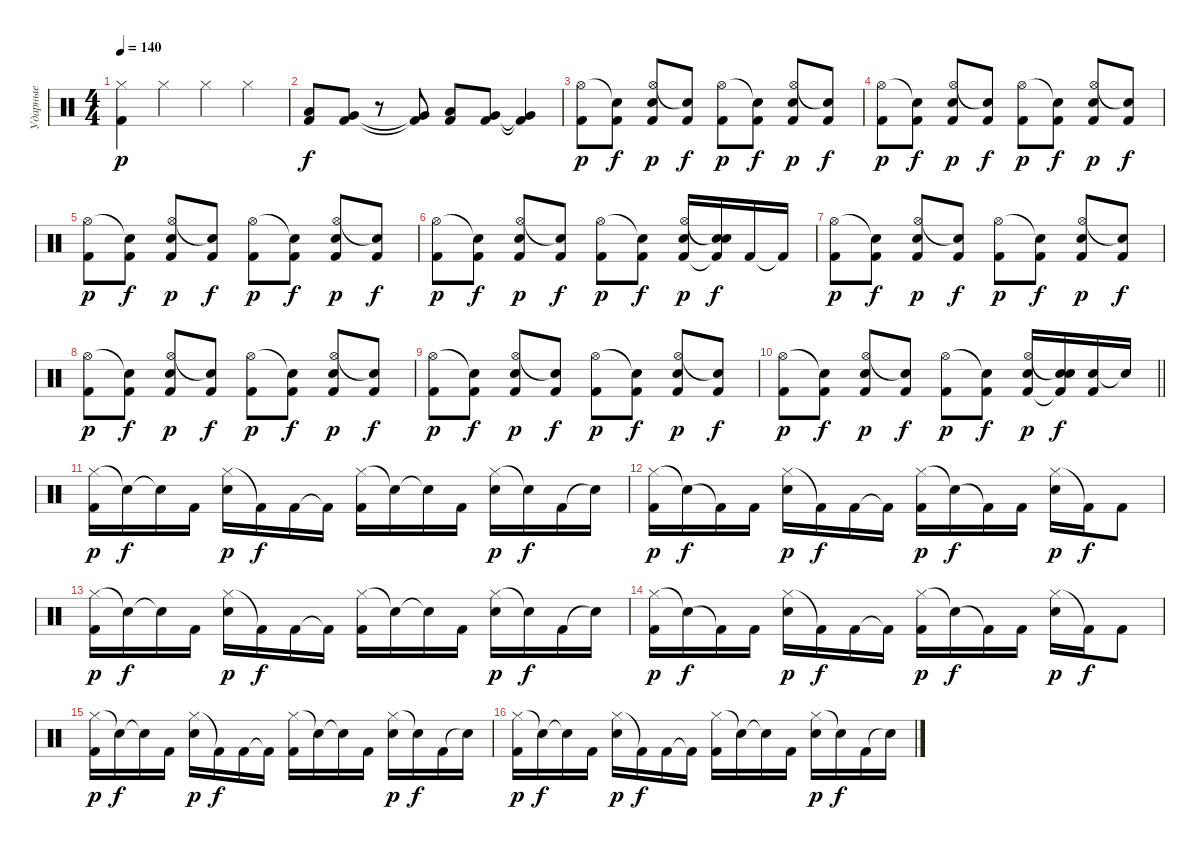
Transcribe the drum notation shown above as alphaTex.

\track ("Ударные" "Ударные") {instrument percussion}
\staff {score}
\articulation defaults
\ts (4 4)
\tempo 140
\clef neutral
\ks c
("Hi-Hat (closed)" "Kick (hit) 2").4{dy p} "Hi-Hat (closed)".4 "Hi-Hat (closed)".4 "Hi-Hat (closed)".4 |
("Low Floor Tom (hit)" "Kick (hit) 2").8{dy f} ("Very Low Tom (hit)" "Kick (hit) 2").8 r.8 ("Very Low Tom (hit)"{t} "Kick (hit) 2"{t}).8 ("Low Floor Tom (hit)" "Kick (hit) 2").8 ("Very Low Tom (hit)" "Kick (hit) 2").8 ("Very Low Tom (hit)"{t} "Kick (hit) 2"{t}).4 |
("Hi-Hat (open)" "Kick (hit) 2").8{dy p} ("Snare (hit)"{t} "Kick (hit) 2").8{dy f} ("Hi-Hat (open)" "Electric Snare (hit)" "Kick (hit) 2").8{dy p} ("Snare (hit)"{t} "Kick (hit) 2").8{dy f} ("Hi-Hat (open)" "Kick (hit) 2").8{dy p} ("Snare (hit)"{t} "Kick (hit) 2").8{dy f} ("Hi-Hat (open)" "Electric Snare (hit)" "Kick (hit) 2").8{dy p} ("Snare (hit)"{t} "Kick (hit) 2").8{dy f} |
("Hi-Hat (open)" "Kick (hit) 2").8{dy p} ("Snare (hit)"{t} "Kick (hit) 2").8{dy f} ("Hi-Hat (open)" "Electric Snare (hit)" "Kick (hit) 2").8{dy p} ("Snare (hit)"{t} "Kick (hit) 2").8{dy f} ("Hi-Hat (open)" "Kick (hit) 2").8{dy p} ("Snare (hit)"{t} "Kick (hit) 2").8{dy f} ("Hi-Hat (open)" "Electric Snare (hit)" "Kick (hit) 2").8{dy p} ("Snare (hit)"{t} "Kick (hit) 2").8{dy f} |
("Hi-Hat (open)" "Kick (hit) 2").8{dy p} ("Snare (hit)"{t} "Kick (hit) 2").8{dy f} ("Hi-Hat (open)" "Electric Snare (hit)" "Kick (hit) 2").8{dy p} ("Snare (hit)"{t} "Kick (hit) 2").8{dy f} ("Hi-Hat (open)" "Kick (hit) 2").8{dy p} ("Snare (hit)"{t} "Kick (hit) 2").8{dy f} ("Hi-Hat (open)" "Electric Snare (hit)" "Kick (hit) 2").8{dy p} ("Snare (hit)"{t} "Kick (hit) 2").8{dy f} |
("Hi-Hat (open)" "Kick (hit) 2").8{dy p} ("Snare (hit)"{t} "Kick (hit) 2").8{dy f} ("Hi-Hat (open)" "Electric Snare (hit)" "Kick (hit) 2").8{dy p} ("Snare (hit)"{t} "Kick (hit) 2").8{dy f} ("Hi-Hat (open)" "Kick (hit) 2").8{dy p} ("Snare (hit)"{t} "Kick (hit) 2").8{dy f} ("Hi-Hat (open)" "Electric Snare (hit)" "Kick (hit) 2").16{dy p} ("Snare (hit)"{t} "Electric Snare (hit)" "Kick (hit) 2"{t}).16{dy f} "Kick (hit) 2".16 "Kick (hit) 2"{t}.16 |
("Hi-Hat (open)" "Kick (hit) 2").8{dy p} ("Snare (hit)"{t} "Kick (hit) 2").8{dy f} ("Hi-Hat (open)" "Electric Snare (hit)" "Kick (hit) 2").8{dy p} ("Snare (hit)"{t} "Kick (hit) 2").8{dy f} ("Hi-Hat (open)" "Kick (hit) 2").8{dy p} ("Snare (hit)"{t} "Kick (hit) 2").8{dy f} ("Hi-Hat (open)" "Electric Snare (hit)" "Kick (hit) 2").8{dy p} ("Snare (hit)"{t} "Kick (hit) 2").8{dy f} |
("Hi-Hat (open)" "Kick (hit) 2").8{dy p} ("Snare (hit)"{t} "Kick (hit) 2").8{dy f} ("Hi-Hat (open)" "Electric Snare (hit)" "Kick (hit) 2").8{dy p} ("Snare (hit)"{t} "Kick (hit) 2").8{dy f} ("Hi-Hat (open)" "Kick (hit) 2").8{dy p} ("Snare (hit)"{t} "Kick (hit) 2").8{dy f} ("Hi-Hat (open)" "Electric Snare (hit)" "Kick (hit) 2").8{dy p} ("Snare (hit)"{t} "Kick (hit) 2").8{dy f} |
("Hi-Hat (open)" "Kick (hit) 2").8{dy p} ("Snare (hit)"{t} "Kick (hit) 2").8{dy f} ("Hi-Hat (open)" "Electric Snare (hit)" "Kick (hit) 2").8{dy p} ("Snare (hit)"{t} "Kick (hit) 2").8{dy f} ("Hi-Hat (open)" "Kick (hit) 2").8{dy p} ("Snare (hit)"{t} "Kick (hit) 2").8{dy f} ("Hi-Hat (open)" "Electric Snare (hit)" "Kick (hit) 2").8{dy p} ("Snare (hit)"{t} "Kick (hit) 2").8{dy f} |
\barLineRight lightlight
("Hi-Hat (open)" "Kick (hit) 2").8{dy p} ("Snare (hit)"{t} "Kick (hit) 2").8{dy f} ("Hi-Hat (open)" "Electric Snare (hit)" "Kick (hit) 2").8{dy p} ("Snare (hit)"{t} "Kick (hit) 2").8{dy f} ("Hi-Hat (open)" "Kick (hit) 2").8{dy p} ("Snare (hit)"{t} "Kick (hit) 2").8{dy f} ("Hi-Hat (open)" "Electric Snare (hit)" "Kick (hit) 2").16{dy p} ("Snare (hit)"{t} "Electric Snare (hit)" "Kick (hit) 2"{t}).16{dy f} ("Electric Snare (hit)" "Kick (hit) 2").16 "Snare (hit)"{t}.16 |
("Hi-Hat (closed)" "Kick (hit) 2").16{dy p} "Snare (hit)"{t}.16{dy f} "Electric Snare (hit)"{t}.16 "Kick (hit) 2".16 ("Hi-Hat (closed)" "Electric Snare (hit)").16{dy p} "Kick (hit) 2"{t}.16{dy f} "Kick (hit) 2".16 "Kick (hit) 2"{t}.16 ("Hi-Hat (closed)" "Kick (hit) 2").16 "Snare (hit)"{t}.16 "Snare (hit)"{t}.16 "Kick (hit) 2".16 ("Hi-Hat (closed)" "Electric Snare (hit)").16{dy p} "Snare (hit)"{t}.16{dy f} "Kick (hit) 2".16 "Snare (hit)"{t}.16 |
("Hi-Hat (closed)" "Kick (hit) 2").16{dy p} "Snare (hit)"{t}.16{dy f} "Kick (hit) 2"{t}.16 "Kick (hit) 2".16 ("Hi-Hat (closed)" "Electric Snare (hit)").16{dy p} "Kick (hit) 2"{t}.16{dy f} "Kick (hit) 2".16 "Kick (hit) 2"{t}.16 ("Hi-Hat (closed)" "Kick (hit) 2").16{dy p} "Snare (hit)"{t}.16{dy f} "Kick (hit) 2"{t}.16 "Kick (hit) 2".16 ("Hi-Hat (closed)" "Electric Snare (hit)").16{dy p} "Kick (hit) 2"{t}.16{dy f} "Kick (hit) 2".8 |
("Hi-Hat (closed)" "Kick (hit) 2").16{dy p} "Snare (hit)"{t}.16{dy f} "Electric Snare (hit)"{t}.16 "Kick (hit) 2".16 ("Hi-Hat (closed)" "Electric Snare (hit)").16{dy p} "Kick (hit) 2"{t}.16{dy f} "Kick (hit) 2".16 "Kick (hit) 2"{t}.16 ("Hi-Hat (closed)" "Kick (hit) 2").16 "Snare (hit)"{t}.16 "Snare (hit)"{t}.16 "Kick (hit) 2".16 ("Hi-Hat (closed)" "Electric Snare (hit)").16{dy p} "Snare (hit)"{t}.16{dy f} "Kick (hit) 2".16 "Snare (hit)"{t}.16 |
("Hi-Hat (closed)" "Kick (hit) 2").16{dy p} "Snare (hit)"{t}.16{dy f} "Kick (hit) 2"{t}.16 "Kick (hit) 2".16 ("Hi-Hat (closed)" "Electric Snare (hit)").16{dy p} "Kick (hit) 2"{t}.16{dy f} "Kick (hit) 2".16 "Kick (hit) 2"{t}.16 ("Hi-Hat (closed)" "Kick (hit) 2").16{dy p} "Snare (hit)"{t}.16{dy f} "Kick (hit) 2"{t}.16 "Kick (hit) 2".16 ("Hi-Hat (closed)" "Electric Snare (hit)").16{dy p} "Kick (hit) 2"{t}.16{dy f} "Kick (hit) 2".8 |
("Hi-Hat (closed)" "Kick (hit) 2").16{dy p} "Snare (hit)"{t}.16{dy f} "Electric Snare (hit)"{t}.16 "Kick (hit) 2".16 ("Hi-Hat (closed)" "Electric Snare (hit)").16{dy p} "Kick (hit) 2"{t}.16{dy f} "Kick (hit) 2".16 "Kick (hit) 2"{t}.16 ("Hi-Hat (closed)" "Kick (hit) 2").16 "Snare (hit)"{t}.16 "Snare (hit)"{t}.16 "Kick (hit) 2".16 ("Hi-Hat (closed)" "Electric Snare (hit)").16{dy p} "Snare (hit)"{t}.16{dy f} "Kick (hit) 2".16 "Snare (hit)"{t}.16 |
("Hi-Hat (closed)" "Kick (hit) 2").16{dy p} "Snare (hit)"{t}.16{dy f} "Electric Snare (hit)"{t}.16 "Kick (hit) 2".16 ("Hi-Hat (closed)" "Electric Snare (hit)").16{dy p} "Kick (hit) 2"{t}.16{dy f} "Kick (hit) 2".16 "Kick (hit) 2"{t}.16 ("Hi-Hat (closed)" "Kick (hit) 2").16 "Snare (hit)"{t}.16 "Snare (hit)"{t}.16 "Kick (hit) 2".16 ("Hi-Hat (closed)" "Electric Snare (hit)").16{dy p} "Snare (hit)"{t}.16{dy f} "Kick (hit) 2".16 "Snare (hit)"{t}.16
